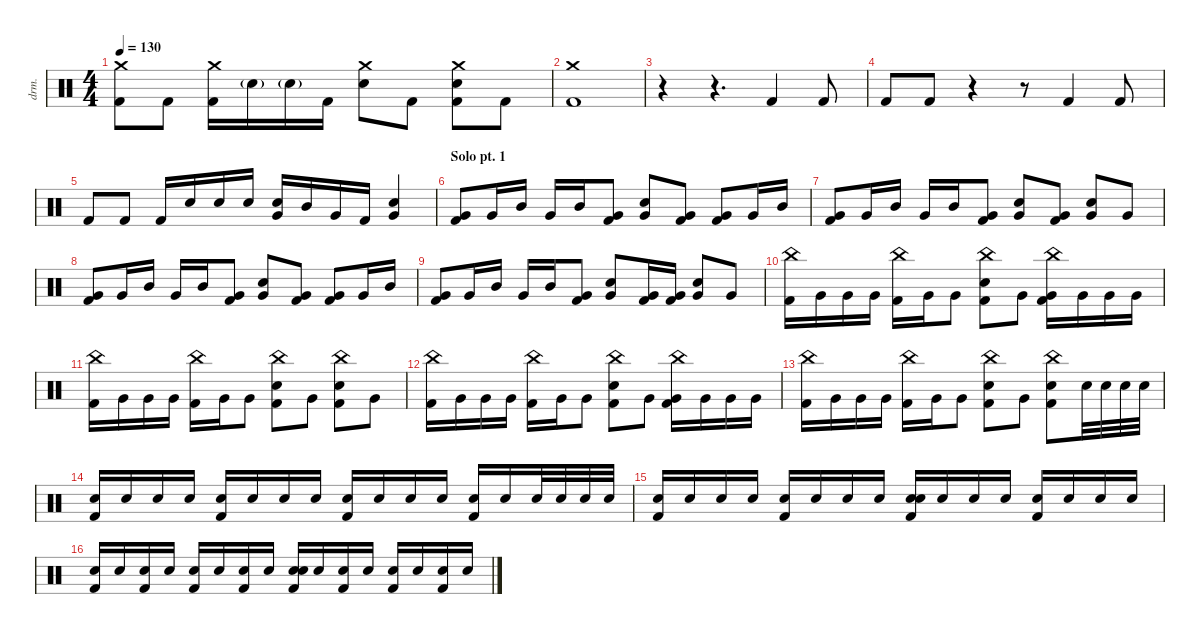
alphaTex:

\defaultSystemsLayout 4
\hideDynamics
\bracketExtendMode nobrackets
\track ("Drums - Šimon" "drm.") {instrument percussion}
\staff {score}
\articulation defaults
\ts (4 4)
\tempo 130
\clef neutral
\ks c
("Kick (hit) 2" "Crash medium (hit)").8{dy ff beam Down} "Kick (hit) 2".8{beam Down} ("Kick (hit) 2" "Crash medium (hit)").16{beam Down} "Snare (hit) 2"{g}.16{beam Down} "Snare (hit) 2"{g}.16{beam Down} "Kick (hit) 2".16{beam Down} ("Snare (hit) 2" "Crash medium (hit)").8{beam Down} "Kick (hit) 2".8{beam Down} ("Kick (hit) 2" "Crash medium (hit)" "Snare (hit) 2").8{beam Down} "Kick (hit) 2".8{beam Down} |
("Kick (hit) 2" "Crash medium (hit)").1{beam Down} |
r.4{beam Down} r.4{d beam Down} "Kick (hit) 2".4{beam Up} "Kick (hit) 2".8{beam Up} |
"Kick (hit) 2".8{beam Up} "Kick (hit) 2".8{beam Up} r.4{beam Down} r.8{beam Down} "Kick (hit) 2".4{beam Up} "Kick (hit) 2".8{beam Up} |
"Kick (hit) 2".8{beam Up} "Kick (hit) 2".8{beam Up} "Kick (hit) 2".16{beam Up} "Snare (hit) 2".16{dy mp beam Up} "Snare (hit) 2".16{beam Up} "Snare (hit) 2".16{beam Up} ("Snare (hit) 2" "Very Low Tom (hit)").16{dy ff beam Up} "Mid Tom (hit)".16{beam Up} "Very Low Tom (hit)".16{beam Up} "Kick (hit) 2".16{beam Up} ("Snare (hit) 2" "Very Low Tom (hit)").4{beam Up} |
\section ("" "Solo pt. 1")
("Kick (hit) 2" "Very Low Tom (hit)").8{beam Up} "Very Low Tom (hit)".16{beam Up} "Mid Tom (hit)".16{beam Up} "Very Low Tom (hit)".16{beam Up} "Mid Tom (hit)".16{beam Up} ("Very Low Tom (hit)" "Kick (hit) 2").8{beam Up} ("Very Low Tom (hit)" "Snare (hit) 2").8{beam Up} ("Very Low Tom (hit)" "Kick (hit) 2").8{beam Up} ("Very Low Tom (hit)" "Kick (hit) 2").8{beam Up} "Very Low Tom (hit)".16{beam Up} "Mid Tom (hit)".16{beam Up} |
("Kick (hit) 2" "Very Low Tom (hit)").8{beam Up} "Very Low Tom (hit)".16{beam Up} "Mid Tom (hit)".16{beam Up} "Very Low Tom (hit)".16{beam Up} "Mid Tom (hit)".16{beam Up} ("Very Low Tom (hit)" "Kick (hit) 2").8{beam Up} ("Very Low Tom (hit)" "Snare (hit) 2").8{beam Up} ("Very Low Tom (hit)" "Kick (hit) 2").8{beam Up} ("Very Low Tom (hit)" "Snare (hit) 2").8{beam Up} "Very Low Tom (hit)".8{beam Up} |
("Kick (hit) 2" "Very Low Tom (hit)").8{beam Up} "Very Low Tom (hit)".16{beam Up} "Mid Tom (hit)".16{beam Up} "Very Low Tom (hit)".16{beam Up} "Mid Tom (hit)".16{beam Up} ("Very Low Tom (hit)" "Kick (hit) 2").8{beam Up} ("Very Low Tom (hit)" "Snare (hit) 2").8{beam Up} ("Very Low Tom (hit)" "Kick (hit) 2").8{beam Up} ("Very Low Tom (hit)" "Kick (hit) 2").8{beam Up} "Very Low Tom (hit)".16{beam Up} "Mid Tom (hit)".16{beam Up} |
("Kick (hit) 2" "Very Low Tom (hit)").8{beam Up} "Very Low Tom (hit)".16{beam Up} "Mid Tom (hit)".16{beam Up} "Very Low Tom (hit)".16{beam Up} "Mid Tom (hit)".16{beam Up} ("Very Low Tom (hit)" "Kick (hit) 2").8{beam Up} ("Very Low Tom (hit)" "Snare (hit) 2").8{beam Up} ("Very Low Tom (hit)" "Kick (hit) 2").16{beam Up} ("Very Low Tom (hit)" "Kick (hit) 2").16{beam Up} ("Very Low Tom (hit)" "Snare (hit) 2").8{beam Up} "Very Low Tom (hit)".8{beam Up} |
("Kick (hit) 2" "China (hit)").16{beam Down} "Very Low Tom (hit)".16{beam Down} "Very Low Tom (hit)".16{beam Down} "Very Low Tom (hit)".16{beam Down} ("Kick (hit) 2" "China (hit)").16{beam Down} "Very Low Tom (hit)".16{beam Down} "Very Low Tom (hit)".8{beam Down} ("Snare (hit) 2" "China (hit)" "Kick (hit) 2").8{beam Down} "Very Low Tom (hit)".8{beam Down} ("Very Low Tom (hit)" "China (hit)" "Kick (hit) 2").16{beam Down} "Very Low Tom (hit)".16{beam Down} "Very Low Tom (hit)".16{beam Down} "Very Low Tom (hit)".16{beam Down} |
("Kick (hit) 2" "China (hit)").16{beam Down} "Very Low Tom (hit)".16{beam Down} "Very Low Tom (hit)".16{beam Down} "Very Low Tom (hit)".16{beam Down} ("Kick (hit) 2" "China (hit)").16{beam Down} "Very Low Tom (hit)".16{beam Down} "Very Low Tom (hit)".8{beam Down} ("Snare (hit) 2" "China (hit)" "Kick (hit) 2").8{beam Down} "Very Low Tom (hit)".8{beam Down} ("Snare (hit) 2" "China (hit)" "Kick (hit) 2").8{beam Down} "Very Low Tom (hit)".8{beam Down} |
("Kick (hit) 2" "China (hit)").16{beam Down} "Very Low Tom (hit)".16{beam Down} "Very Low Tom (hit)".16{beam Down} "Very Low Tom (hit)".16{beam Down} ("Kick (hit) 2" "China (hit)").16{beam Down} "Very Low Tom (hit)".16{beam Down} "Very Low Tom (hit)".8{beam Down} ("Snare (hit) 2" "China (hit)" "Kick (hit) 2").8{beam Down} "Very Low Tom (hit)".8{beam Down} ("Very Low Tom (hit)" "China (hit)" "Kick (hit) 2").16{beam Down} "Very Low Tom (hit)".16{beam Down} "Very Low Tom (hit)".16{beam Down} "Very Low Tom (hit)".16{beam Down} |
("Kick (hit) 2" "China (hit)").16{beam Down} "Very Low Tom (hit)".16{beam Down} "Very Low Tom (hit)".16{beam Down} "Very Low Tom (hit)".16{beam Down} ("Kick (hit) 2" "China (hit)").16{beam Down} "Very Low Tom (hit)".16{beam Down} "Very Low Tom (hit)".8{beam Down} ("Snare (hit) 2" "China (hit)" "Kick (hit) 2").8{beam Down} "Very Low Tom (hit)".8{beam Down} ("Snare (hit) 2" "China (hit)" "Kick (hit) 2").8{beam Down} "Snare (hit) 2".32{beam Down} "Snare (hit) 2".32{beam Down} "Snare (hit) 2".32{beam Down} "Snare (hit) 2".32{beam Down} |
("Snare (hit) 2" "Kick (hit) 2").16{beam Up} "Snare (hit) 2".16{dy mp beam Up} "Snare (hit) 2".16{beam Up} "Snare (hit) 2".16{dy ff beam Up} ("Snare (hit) 2" "Kick (hit) 2").16{dy mp beam Up} "Snare (hit) 2".16{beam Up} "Snare (hit) 2".16{dy ff beam Up} "Snare (hit) 2".16{dy mp beam Up} ("Snare (hit) 2" "Kick (hit) 2").16{beam Up} "Snare (hit) 2".16{dy ff beam Up} "Snare (hit) 2".16{dy mp beam Up} "Snare (hit) 2".16{beam Up} ("Snare (hit) 2" "Kick (hit) 2").16{dy ff beam Up} "Snare (hit) 2".16{dy mp beam Up} "Snare (hit) 2".32{beam Up} "Snare (hit) 2".32{beam Up} "Snare (hit) 2".32{beam Up} "Snare (hit) 2".32{beam Up} |
("Snare (hit) 2" "Kick (hit) 2").16{dy ff beam Up} "Snare (hit) 2".16{dy mp beam Up} "Snare (hit) 2".16{beam Up} "Snare (hit) 2".16{dy ff beam Up} ("Snare (hit) 2" "Kick (hit) 2").16{dy mp beam Up} "Snare (hit) 2".16{beam Up} "Snare (hit) 2".16{dy ff beam Up} "Snare (hit) 2".16{dy mp beam Up} ("Snare (hit) 2" "Kick (hit) 2" "Snare (hit) 2").16{dy ff beam Up} "Snare (hit) 2".16{beam Up} "Snare (hit) 2".16{dy mp beam Up} "Snare (hit) 2".16{beam Up} ("Snare (hit) 2" "Kick (hit) 2").16{dy ff beam Up} "Snare (hit) 2".16{beam Up} "Snare (hit) 2".16{dy mp beam Up} "Snare (hit) 2".16{beam Up} |
("Snare (hit) 2" "Kick (hit) 2").16{dy ff beam Up} "Snare (hit) 2".16{dy mp beam Up} ("Snare (hit) 2" "Kick (hit) 2").16{beam Up} "Snare (hit) 2".16{dy ff beam Up} ("Snare (hit) 2" "Kick (hit) 2").16{dy mp beam Up} "Snare (hit) 2".16{beam Up} ("Snare (hit) 2" "Kick (hit) 2").16{dy ff beam Up} "Snare (hit) 2".16{dy mp beam Up} ("Snare (hit) 2" "Kick (hit) 2" "Snare (hit) 2").16{dy ff beam Up} "Snare (hit) 2".16{beam Up} ("Snare (hit) 2" "Kick (hit) 2").16{dy mp beam Up} "Snare (hit) 2".16{beam Up} ("Snare (hit) 2" "Kick (hit) 2").16{dy ff beam Up} "Snare (hit) 2".16{beam Up} ("Snare (hit) 2" "Kick (hit) 2").16{dy mp beam Up} "Snare (hit) 2".16{beam Up}
